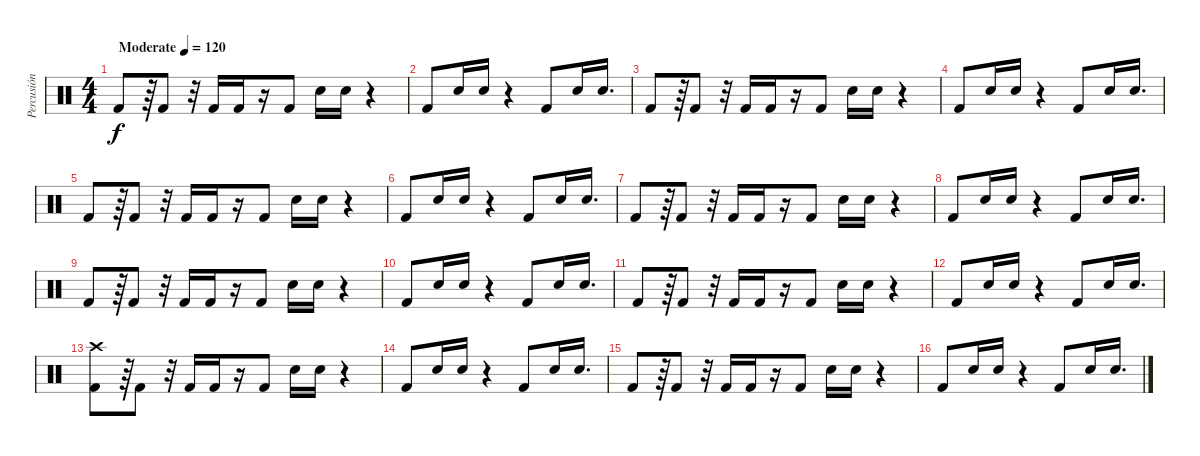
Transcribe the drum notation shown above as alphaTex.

\track ("Percusión" "Percusión") {instrument percussion}
\staff {score}
\articulation defaults
\ts (4 4)
\tempo (120 "Moderate")
\clef neutral
\ks c "Kick (hit) 2".8{dy f}
r.64 "Kick (hit) 2".8 r.32 "Kick (hit) 2".16 "Kick (hit) 2".16 r.16 "Kick (hit) 2".8 "Snare (hit) 2".16 "Snare (hit) 2".16 r.4 |
"Kick (hit) 2".8 "Snare (hit) 2".16 "Snare (hit) 2".16 r.4 "Kick (hit) 2".8 "Snare (hit) 2".16 "Snare (hit) 2".16{d} |
"Kick (hit) 2".8 r.64 "Kick (hit) 2".8 r.32 "Kick (hit) 2".16 "Kick (hit) 2".16 r.16 "Kick (hit) 2".8 "Snare (hit) 2".16 "Snare (hit) 2".16 r.4 |
"Kick (hit) 2".8 "Snare (hit) 2".16 "Snare (hit) 2".16 r.4 "Kick (hit) 2".8 "Snare (hit) 2".16 "Snare (hit) 2".16{d} |
"Kick (hit) 2".8 r.64 "Kick (hit) 2".8 r.32 "Kick (hit) 2".16 "Kick (hit) 2".16 r.16 "Kick (hit) 2".8 "Snare (hit) 2".16 "Snare (hit) 2".16 r.4 |
"Kick (hit) 2".8 "Snare (hit) 2".16 "Snare (hit) 2".16 r.4 "Kick (hit) 2".8 "Snare (hit) 2".16 "Snare (hit) 2".16{d} |
"Kick (hit) 2".8 r.64 "Kick (hit) 2".8 r.32 "Kick (hit) 2".16 "Kick (hit) 2".16 r.16 "Kick (hit) 2".8 "Snare (hit) 2".16 "Snare (hit) 2".16 r.4 |
"Kick (hit) 2".8 "Snare (hit) 2".16 "Snare (hit) 2".16 r.4 "Kick (hit) 2".8 "Snare (hit) 2".16 "Snare (hit) 2".16{d} |
"Kick (hit) 2".8 r.64 "Kick (hit) 2".8 r.32 "Kick (hit) 2".16 "Kick (hit) 2".16 r.16 "Kick (hit) 2".8 "Snare (hit) 2".16 "Snare (hit) 2".16 r.4 |
"Kick (hit) 2".8 "Snare (hit) 2".16 "Snare (hit) 2".16 r.4 "Kick (hit) 2".8 "Snare (hit) 2".16 "Snare (hit) 2".16{d} |
"Kick (hit) 2".8 r.64 "Kick (hit) 2".8 r.32 "Kick (hit) 2".16 "Kick (hit) 2".16 r.16 "Kick (hit) 2".8 "Snare (hit) 2".16 "Snare (hit) 2".16 r.4 |
"Kick (hit) 2".8 "Snare (hit) 2".16 "Snare (hit) 2".16 r.4 "Kick (hit) 2".8 "Snare (hit) 2".16 "Snare (hit) 2".16{d} |
("Kick (hit) 2" "Crash high (hit)").8 r.64 "Kick (hit) 2".8 r.32 "Kick (hit) 2".16 "Kick (hit) 2".16 r.16 "Kick (hit) 2".8 "Snare (hit) 2".16 "Snare (hit) 2".16 r.4 |
"Kick (hit) 2".8 "Snare (hit) 2".16 "Snare (hit) 2".16 r.4 "Kick (hit) 2".8 "Snare (hit) 2".16 "Snare (hit) 2".16{d} |
"Kick (hit) 2".8 r.64 "Kick (hit) 2".8 r.32 "Kick (hit) 2".16 "Kick (hit) 2".16 r.16 "Kick (hit) 2".8 "Snare (hit) 2".16 "Snare (hit) 2".16 r.4 |
"Kick (hit) 2".8 "Snare (hit) 2".16 "Snare (hit) 2".16 r.4 "Kick (hit) 2".8 "Snare (hit) 2".16 "Snare (hit) 2".16{d}
